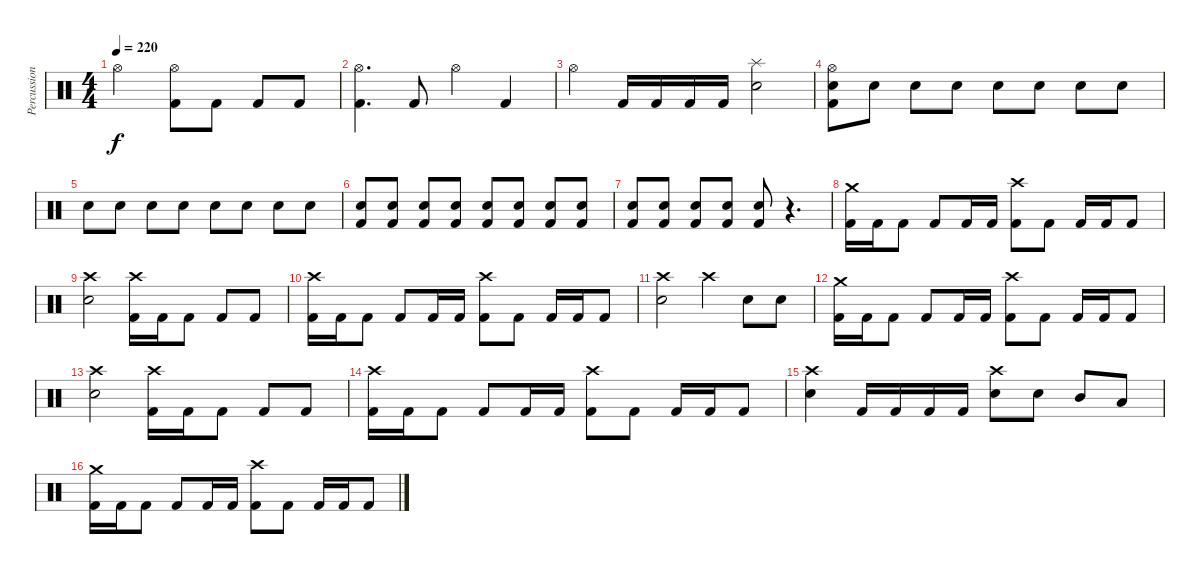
\track ("Percussions" "Percussion") {instrument percussion}
\staff {score}
\articulation defaults
\ts (4 4)
\tempo 220
\clef neutral
\ks c "Hi-Hat (open)".2{dy f}
("Hi-Hat (open)" "Kick (hit) 2").8 "Kick (hit) 2".8 "Kick (hit) 2".8 "Kick (hit) 2".8 |
("Hi-Hat (open)" "Kick (hit) 2").4{d} "Kick (hit) 2".8 "Hi-Hat (open)".4 "Kick (hit) 2".4 |
"Hi-Hat (open)".4 "Kick (hit) 2".16 "Kick (hit) 2".16 "Kick (hit) 2".16 "Kick (hit) 2".16 ("Splash (hit)" "Electric Snare (hit)").2 |
("Hi-Hat (open)" "Electric Snare (hit)" "Kick (hit) 2").8 "Electric Snare (hit)".8 "Electric Snare (hit)".8 "Electric Snare (hit)".8 "Electric Snare (hit)".8 "Electric Snare (hit)".8 "Electric Snare (hit)".8 "Electric Snare (hit)".8 |
"Electric Snare (hit)".8 "Electric Snare (hit)".8 "Electric Snare (hit)".8 "Electric Snare (hit)".8 "Electric Snare (hit)".8 "Electric Snare (hit)".8 "Electric Snare (hit)".8 "Electric Snare (hit)".8 |
("Electric Snare (hit)" "Kick (hit) 2").8 ("Electric Snare (hit)" "Kick (hit) 2").8 ("Electric Snare (hit)" "Kick (hit) 2").8 ("Electric Snare (hit)" "Kick (hit) 2").8 ("Electric Snare (hit)" "Kick (hit) 2").8 ("Electric Snare (hit)" "Kick (hit) 2").8 ("Electric Snare (hit)" "Kick (hit) 2").8 ("Electric Snare (hit)" "Kick (hit) 2").8 |
("Electric Snare (hit)" "Kick (hit) 2").8 ("Electric Snare (hit)" "Kick (hit) 2").8 ("Electric Snare (hit)" "Kick (hit) 2").8 ("Electric Snare (hit)" "Kick (hit) 2").8 ("Electric Snare (hit)" "Kick (hit) 2").8 r.4{d} |
("Crash medium (hit)" "Kick (hit) 2").16 "Kick (hit) 2".16 "Kick (hit) 2".8 "Kick (hit) 2".8 "Kick (hit) 2".16 "Kick (hit) 2".16 ("Crash high (hit)" "Kick (hit) 2").8 "Kick (hit) 2".8 "Kick (hit) 2".16 "Kick (hit) 2".16 "Kick (hit) 2".8 |
("Crash high (hit)" "Electric Snare (hit)").2 ("Crash high (hit)" "Kick (hit) 2").16 "Kick (hit) 2".16 "Kick (hit) 2".8 "Kick (hit) 2".8 "Kick (hit) 2".8 |
("Crash high (hit)" "Kick (hit) 2").16 "Kick (hit) 2".16 "Kick (hit) 2".8 "Kick (hit) 2".8 "Kick (hit) 2".16 "Kick (hit) 2".16 ("Crash high (hit)" "Kick (hit) 2").8 "Kick (hit) 2".8 "Kick (hit) 2".16 "Kick (hit) 2".16 "Kick (hit) 2".8 |
("Crash high (hit)" "Electric Snare (hit)").2 "Crash high (hit)".4 "Electric Snare (hit)".8 "Electric Snare (hit)".8 |
("Crash medium (hit)" "Kick (hit) 2").16 "Kick (hit) 2".16 "Kick (hit) 2".8 "Kick (hit) 2".8 "Kick (hit) 2".16 "Kick (hit) 2".16 ("Crash high (hit)" "Kick (hit) 2").8 "Kick (hit) 2".8 "Kick (hit) 2".16 "Kick (hit) 2".16 "Kick (hit) 2".8 |
("Crash high (hit)" "Electric Snare (hit)").2 ("Crash high (hit)" "Kick (hit) 2").16 "Kick (hit) 2".16 "Kick (hit) 2".8 "Kick (hit) 2".8 "Kick (hit) 2".8 |
("Crash high (hit)" "Kick (hit) 2").16 "Kick (hit) 2".16 "Kick (hit) 2".8 "Kick (hit) 2".8 "Kick (hit) 2".16 "Kick (hit) 2".16 ("Crash high (hit)" "Kick (hit) 2").8 "Kick (hit) 2".8 "Kick (hit) 2".16 "Kick (hit) 2".16 "Kick (hit) 2".8 |
("Crash high (hit)" "Electric Snare (hit)").4 "Kick (hit) 2".16 "Kick (hit) 2".16 "Kick (hit) 2".16 "Kick (hit) 2".16 ("Crash high (hit)" "Electric Snare (hit)").8 "Electric Snare (hit)".8 "Mid Tom (hit)".8 "Low Tom (hit)".8 |
("Crash medium (hit)" "Kick (hit) 2").16 "Kick (hit) 2".16 "Kick (hit) 2".8 "Kick (hit) 2".8 "Kick (hit) 2".16 "Kick (hit) 2".16 ("Crash high (hit)" "Kick (hit) 2").8 "Kick (hit) 2".8 "Kick (hit) 2".16 "Kick (hit) 2".16 "Kick (hit) 2".8
